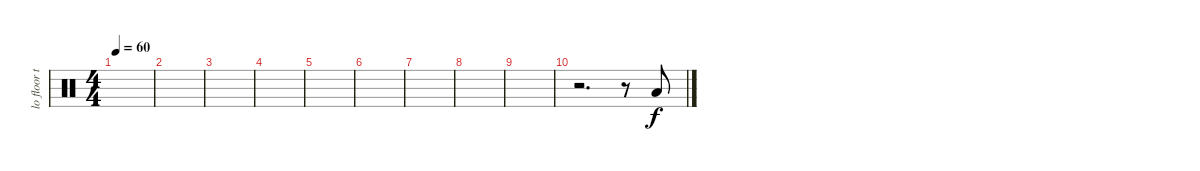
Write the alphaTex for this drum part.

\track ("lo floor tom" "lo floor t") {instrument percussion}
\staff {score}
\articulation defaults
\ts (4 4)
\tempo 60
\clef neutral
\ks c
|
|
|
|
|
|
|
|
|
r.2{d} r.8 "Low Floor Tom (hit)".8
